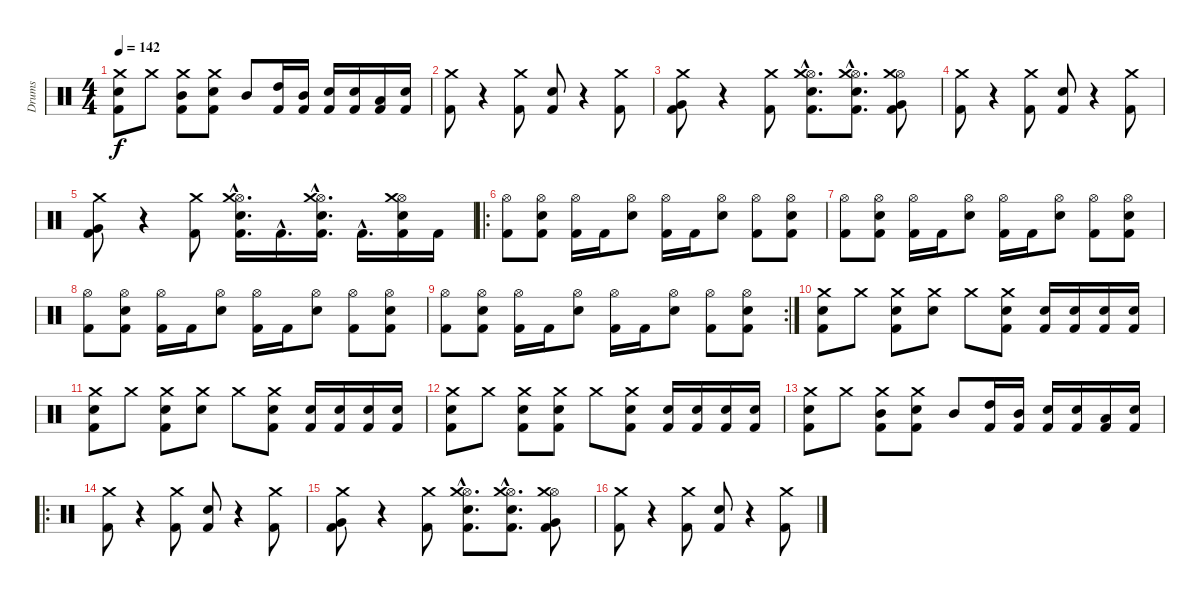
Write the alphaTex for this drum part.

\track ("Drums" "Drums") {instrument percussion}
\staff {score}
\articulation defaults
\ts (4 4)
\tempo 142
\clef neutral
\ks c
("Crash medium (hit)" "Snare (hit) 2" "Kick (hit) 2").8{dy f} "Crash medium (hit)".8 ("Crash medium (hit)" "Mid Tom (hit)" "Kick (hit) 2").8 ("Crash medium (hit)" "Snare (hit) 2" "Kick (hit) 2").8 "Mid Tom (hit)".8 ("High Tom (hit)" "Kick (hit) 2").16 ("Mid Tom (hit)" "Kick (hit) 2").16 ("Snare (hit) 2" "Kick (hit) 2").16 ("Snare (hit) 2" "Kick (hit) 2").16 ("Low Tom (hit)" "Kick (hit) 2").16 ("Snare (hit) 2" "Kick (hit) 2").16 |
("Crash medium (hit)" "Kick (hit) 2").8 r.4 ("Crash medium (hit)" "Kick (hit) 2").8 ("Snare (hit) 2" "Kick (hit) 2").8 r.4 ("Crash medium (hit)" "Kick (hit) 2").8 |
("Crash medium (hit)" "Very Low Tom (hit)" "Kick (hit) 2").8 r.4 ("Crash medium (hit)" "Kick (hit) 2").8 ("Hi-Hat (open)"{hac} "Crash medium (hit)"{hac} "Snare (hit) 2"{hac} "Kick (hit) 2"{hac}).8{d} ("Hi-Hat (open)"{hac} "Crash medium (hit)"{hac} "Snare (hit) 2"{hac} "Kick (hit) 2"{hac}).8{d} ("Hi-Hat (open)" "Crash medium (hit)" "Very Low Tom (hit)" "Kick (hit) 2").8 |
("Crash medium (hit)" "Kick (hit) 2").8 r.4 ("Crash medium (hit)" "Kick (hit) 2").8 ("Snare (hit) 2" "Kick (hit) 2").8 r.4 ("Crash medium (hit)" "Kick (hit) 2").8 |
("Crash medium (hit)" "Very Low Tom (hit)" "Kick (hit) 2").8 r.4 ("Crash medium (hit)" "Kick (hit) 2").8 ("Hi-Hat (open)"{hac} "Crash medium (hit)"{hac} "Snare (hit) 2"{hac} "Kick (hit) 2"{hac}).16{d} "Kick (hit) 2"{hac}.16{d} ("Hi-Hat (open)"{hac} "Crash medium (hit)"{hac} "Snare (hit) 2"{hac} "Kick (hit) 2"{hac}).16{d} "Kick (hit) 2"{hac}.16{d} ("Hi-Hat (open)" "Crash medium (hit)" "Snare (hit) 2" "Kick (hit) 2").16 "Kick (hit) 2".16 |
\ro
("Hi-Hat (open)" "Kick (hit) 2").8 ("Hi-Hat (open)" "Snare (hit) 2" "Kick (hit) 2").8 ("Hi-Hat (open)" "Kick (hit) 2").16 "Kick (hit) 2".16 ("Hi-Hat (open)" "Snare (hit) 2").8 ("Hi-Hat (open)" "Kick (hit) 2").16 "Kick (hit) 2".16 ("Hi-Hat (open)" "Snare (hit) 2").8 ("Hi-Hat (open)" "Kick (hit) 2").8 ("Hi-Hat (open)" "Snare (hit) 2" "Kick (hit) 2").8 |
("Hi-Hat (open)" "Kick (hit) 2").8 ("Hi-Hat (open)" "Snare (hit) 2" "Kick (hit) 2").8 ("Hi-Hat (open)" "Kick (hit) 2").16 "Kick (hit) 2".16 ("Hi-Hat (open)" "Snare (hit) 2").8 ("Hi-Hat (open)" "Kick (hit) 2").16 "Kick (hit) 2".16 ("Hi-Hat (open)" "Snare (hit) 2").8 ("Hi-Hat (open)" "Kick (hit) 2").8 ("Hi-Hat (open)" "Snare (hit) 2" "Kick (hit) 2").8 |
("Hi-Hat (open)" "Kick (hit) 2").8 ("Hi-Hat (open)" "Snare (hit) 2" "Kick (hit) 2").8 ("Hi-Hat (open)" "Kick (hit) 2").16 "Kick (hit) 2".16 ("Hi-Hat (open)" "Snare (hit) 2").8 ("Hi-Hat (open)" "Kick (hit) 2").16 "Kick (hit) 2".16 ("Hi-Hat (open)" "Snare (hit) 2").8 ("Hi-Hat (open)" "Kick (hit) 2").8 ("Hi-Hat (open)" "Snare (hit) 2" "Kick (hit) 2").8 |
\rc 2
("Hi-Hat (open)" "Kick (hit) 2").8 ("Hi-Hat (open)" "Snare (hit) 2" "Kick (hit) 2").8 ("Hi-Hat (open)" "Kick (hit) 2").16 "Kick (hit) 2".16 ("Hi-Hat (open)" "Snare (hit) 2").8 ("Hi-Hat (open)" "Kick (hit) 2").16 "Kick (hit) 2".16 ("Hi-Hat (open)" "Snare (hit) 2").8 ("Hi-Hat (open)" "Kick (hit) 2").8 ("Hi-Hat (open)" "Snare (hit) 2" "Kick (hit) 2").8 |
("Crash medium (hit)" "Snare (hit) 2" "Kick (hit) 2").8 "Crash medium (hit)".8 ("Crash medium (hit)" "Snare (hit) 2" "Kick (hit) 2").8 ("Crash medium (hit)" "Snare (hit) 2").8 "Crash medium (hit)".8 ("Crash medium (hit)" "Snare (hit) 2" "Kick (hit) 2").8 ("Snare (hit) 2" "Kick (hit) 2").16 ("Snare (hit) 2" "Kick (hit) 2").16 ("Snare (hit) 2" "Kick (hit) 2").16 ("Snare (hit) 2" "Kick (hit) 2").16 |
("Crash medium (hit)" "Snare (hit) 2" "Kick (hit) 2").8 "Crash medium (hit)".8 ("Crash medium (hit)" "Snare (hit) 2" "Kick (hit) 2").8 ("Crash medium (hit)" "Snare (hit) 2").8 "Crash medium (hit)".8 ("Crash medium (hit)" "Snare (hit) 2" "Kick (hit) 2").8 ("Snare (hit) 2" "Kick (hit) 2").16 ("Snare (hit) 2" "Kick (hit) 2").16 ("Snare (hit) 2" "Kick (hit) 2").16 ("Snare (hit) 2" "Kick (hit) 2").16 |
("Crash medium (hit)" "Snare (hit) 2" "Kick (hit) 2").8 "Crash medium (hit)".8 ("Crash medium (hit)" "Snare (hit) 2" "Kick (hit) 2").8 ("Crash medium (hit)" "Snare (hit) 2" "Kick (hit) 2").8 "Crash medium (hit)".8 ("Crash medium (hit)" "Snare (hit) 2" "Kick (hit) 2").8 ("Snare (hit) 2" "Kick (hit) 2").16 ("Snare (hit) 2" "Kick (hit) 2").16 ("Snare (hit) 2" "Kick (hit) 2").16 ("Snare (hit) 2" "Kick (hit) 2").16 |
("Crash medium (hit)" "Snare (hit) 2" "Kick (hit) 2").8 "Crash medium (hit)".8 ("Crash medium (hit)" "Mid Tom (hit)" "Kick (hit) 2").8 ("Crash medium (hit)" "Snare (hit) 2" "Kick (hit) 2").8 "Mid Tom (hit)".8 ("High Tom (hit)" "Kick (hit) 2").16 ("Mid Tom (hit)" "Kick (hit) 2").16 ("Snare (hit) 2" "Kick (hit) 2").16 ("Snare (hit) 2" "Kick (hit) 2").16 ("Low Tom (hit)" "Kick (hit) 2").16 ("Snare (hit) 2" "Kick (hit) 2").16 |
\ro
("Crash medium (hit)" "Kick (hit) 2").8 r.4 ("Crash medium (hit)" "Kick (hit) 2").8 ("Snare (hit) 2" "Kick (hit) 2").8 r.4 ("Crash medium (hit)" "Kick (hit) 2").8 |
("Crash medium (hit)" "Very Low Tom (hit)" "Kick (hit) 2").8 r.4 ("Crash medium (hit)" "Kick (hit) 2").8 ("Hi-Hat (open)"{hac} "Crash medium (hit)"{hac} "Snare (hit) 2"{hac} "Kick (hit) 2"{hac}).8{d} ("Hi-Hat (open)"{hac} "Crash medium (hit)"{hac} "Snare (hit) 2"{hac} "Kick (hit) 2"{hac}).8{d} ("Hi-Hat (open)" "Crash medium (hit)" "Very Low Tom (hit)" "Kick (hit) 2").8 |
("Crash medium (hit)" "Kick (hit) 2").8 r.4 ("Crash medium (hit)" "Kick (hit) 2").8 ("Snare (hit) 2" "Kick (hit) 2").8 r.4 ("Crash medium (hit)" "Kick (hit) 2").8
